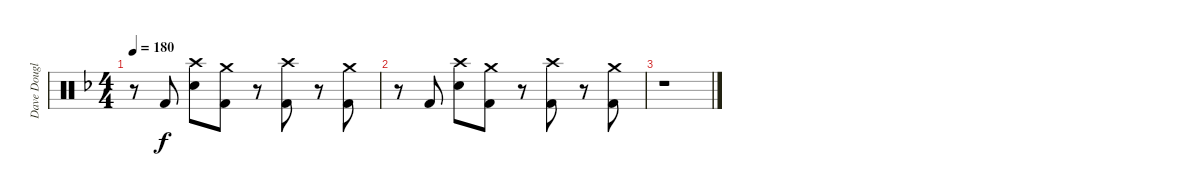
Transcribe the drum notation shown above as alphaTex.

\track ("Dave Douglas (Drum)" "Dave Dougl") {instrument percussion}
\staff {score}
\articulation defaults
\ts (4 4)
\tempo 180
\clef neutral
\ks dminor
r.8{dy f} "Kick (hit) 2".8 ("Crash high (hit)" "Snare (hit) 2").8 ("Crash medium (hit)" "Kick (hit) 2").8 r.8 ("Crash high (hit)" "Kick (hit) 2").8 r.8 ("Crash medium (hit)" "Kick (hit) 2").8 |
r.8 "Kick (hit) 2".8 ("Crash high (hit)" "Snare (hit) 2").8 ("Crash medium (hit)" "Kick (hit) 2").8 r.8 ("Crash high (hit)" "Kick (hit) 2").8 r.8 ("Crash medium (hit)" "Kick (hit) 2").8 |
r.1
